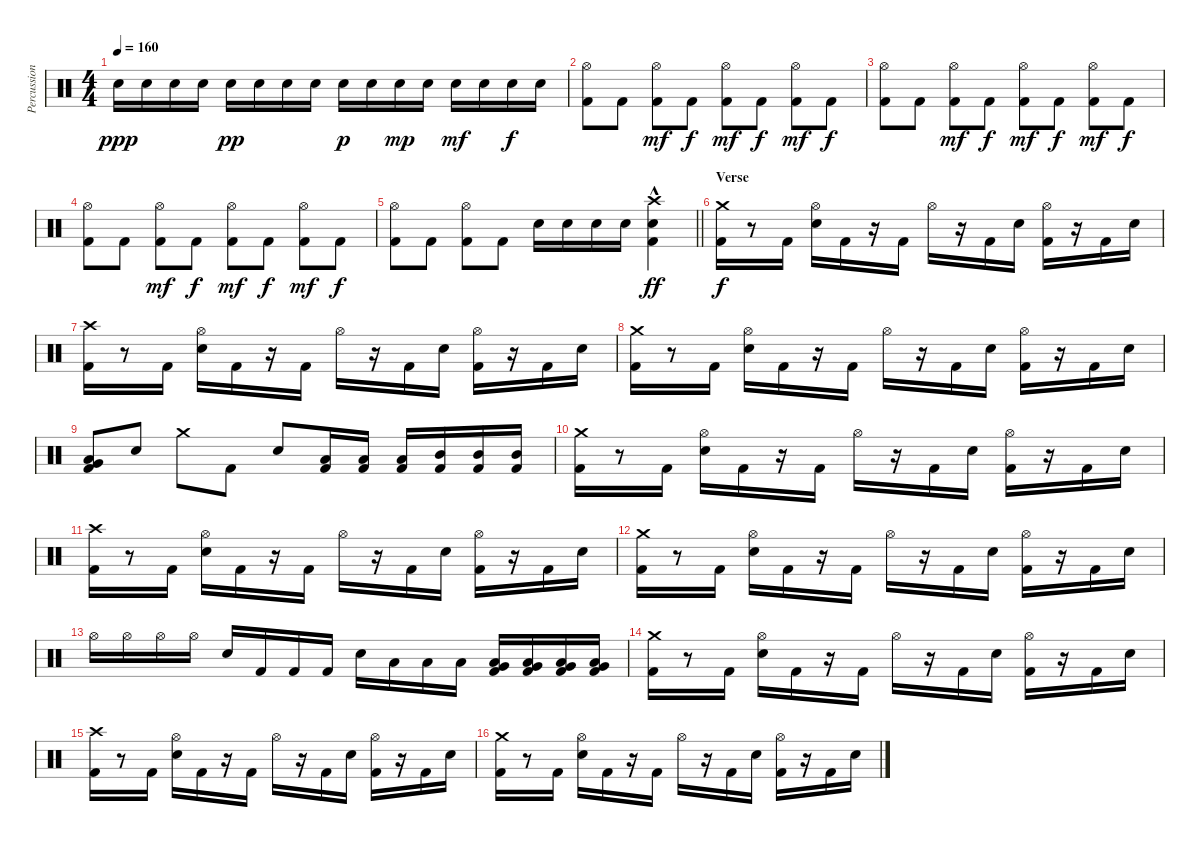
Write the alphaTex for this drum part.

\track ("Percussion" "Percussion") {instrument percussion}
\staff {score}
\articulation defaults
\ts (4 4)
\tempo 160
\clef neutral
\ks c "Electric Snare (hit)".16{dy ppp} "Electric Snare (hit)".16 "Electric Snare (hit)".16 "Electric Snare (hit)".16 "Electric Snare (hit)".16{dy pp} "Electric Snare (hit)".16 "Electric Snare (hit)".16 "Electric Snare (hit)".16 "Electric Snare (hit)".16{dy p} "Electric Snare (hit)".16 "Electric Snare (hit)".16{dy mp} "Electric Snare (hit)".16 "Electric Snare (hit)".16{dy mf} "Electric Snare (hit)".16 "Electric Snare (hit)".16{dy f} "Electric Snare (hit)".16
|
("Hi-Hat (open)" "Kick (hit) 2").8 "Kick (hit) 2".8 ("Hi-Hat (open)" "Kick (hit) 2").8{dy mf} "Kick (hit) 2".8{dy f} ("Hi-Hat (open)" "Kick (hit) 2").8{dy mf} "Kick (hit) 2".8{dy f} ("Hi-Hat (open)" "Kick (hit) 2").8{dy mf} "Kick (hit) 2".8{dy f} |
("Hi-Hat (open)" "Kick (hit) 2").8 "Kick (hit) 2".8 ("Hi-Hat (open)" "Kick (hit) 2").8{dy mf} "Kick (hit) 2".8{dy f} ("Hi-Hat (open)" "Kick (hit) 2").8{dy mf} "Kick (hit) 2".8{dy f} ("Hi-Hat (open)" "Kick (hit) 2").8{dy mf} "Kick (hit) 2".8{dy f} |
("Hi-Hat (open)" "Kick (hit) 2").8 "Kick (hit) 2".8 ("Hi-Hat (open)" "Kick (hit) 2").8{dy mf} "Kick (hit) 2".8{dy f} ("Hi-Hat (open)" "Kick (hit) 2").8{dy mf} "Kick (hit) 2".8{dy f} ("Hi-Hat (open)" "Kick (hit) 2").8{dy mf} "Kick (hit) 2".8{dy f} |
\barLineRight lightlight
("Hi-Hat (open)" "Kick (hit) 2").8 "Kick (hit) 2".8 ("Hi-Hat (open)" "Kick (hit) 2").8 "Kick (hit) 2".8 "Electric Snare (hit)".16 "Electric Snare (hit)".16 "Electric Snare (hit)".16 "Electric Snare (hit)".16 ("Crash high (hit)" "Electric Snare (hit)" "Kick (hit) 2"{hac}).4{dy ff} |
\section ("" "Verse")
("Crash medium (hit)" "Kick (hit) 2").16{dy f} r.8 "Kick (hit) 2".16 ("Hi-Hat (open)" "Electric Snare (hit)").16 "Kick (hit) 2".16 r.16 "Kick (hit) 2".16 "Hi-Hat (open)".16 r.16 "Kick (hit) 2".16 "Electric Snare (hit)".16 ("Hi-Hat (open)" "Kick (hit) 2").16 r.16 "Kick (hit) 2".16 "Electric Snare (hit)".16 |
("Crash high (hit)" "Kick (hit) 2").16 r.8 "Kick (hit) 2".16 ("Hi-Hat (open)" "Electric Snare (hit)").16 "Kick (hit) 2".16 r.16 "Kick (hit) 2".16 "Hi-Hat (open)".16 r.16 "Kick (hit) 2".16 "Electric Snare (hit)".16 ("Hi-Hat (open)" "Kick (hit) 2").16 r.16 "Kick (hit) 2".16 "Electric Snare (hit)".16 |
("Crash medium (hit)" "Kick (hit) 2").16 r.8 "Kick (hit) 2".16 ("Hi-Hat (open)" "Electric Snare (hit)").16 "Kick (hit) 2".16 r.16 "Kick (hit) 2".16 "Hi-Hat (open)".16 r.16 "Kick (hit) 2".16 "Electric Snare (hit)".16 ("Hi-Hat (open)" "Kick (hit) 2").16 r.16 "Kick (hit) 2".16 "Electric Snare (hit)".16 |
("Low Tom (hit)" "Very Low Tom (hit)" "Kick (hit) 2").8 "Electric Snare (hit)".8 "Crash medium (hit)".8 "Kick (hit) 2".8 "Electric Snare (hit)".8 ("Low Tom (hit)" "Kick (hit) 2").16 ("Low Tom (hit)" "Kick (hit) 2").16 ("Low Tom (hit)" "Kick (hit) 2").16 ("Mid Tom (hit)" "Kick (hit) 2").16 ("Mid Tom (hit)" "Kick (hit) 2").16 ("Mid Tom (hit)" "Kick (hit) 2").16 |
("Crash medium (hit)" "Kick (hit) 2").16 r.8 "Kick (hit) 2".16 ("Hi-Hat (open)" "Electric Snare (hit)").16 "Kick (hit) 2".16 r.16 "Kick (hit) 2".16 "Hi-Hat (open)".16 r.16 "Kick (hit) 2".16 "Electric Snare (hit)".16 ("Hi-Hat (open)" "Kick (hit) 2").16 r.16 "Kick (hit) 2".16 "Electric Snare (hit)".16 |
("Crash high (hit)" "Kick (hit) 2").16 r.8 "Kick (hit) 2".16 ("Hi-Hat (open)" "Electric Snare (hit)").16 "Kick (hit) 2".16 r.16 "Kick (hit) 2".16 "Hi-Hat (open)".16 r.16 "Kick (hit) 2".16 "Electric Snare (hit)".16 ("Hi-Hat (open)" "Kick (hit) 2").16 r.16 "Kick (hit) 2".16 "Electric Snare (hit)".16 |
("Crash medium (hit)" "Kick (hit) 2").16 r.8 "Kick (hit) 2".16 ("Hi-Hat (open)" "Electric Snare (hit)").16 "Kick (hit) 2".16 r.16 "Kick (hit) 2".16 "Hi-Hat (open)".16 r.16 "Kick (hit) 2".16 "Electric Snare (hit)".16 ("Hi-Hat (open)" "Kick (hit) 2").16 r.16 "Kick (hit) 2".16 "Electric Snare (hit)".16 |
"Hi-Hat (open)".16 "Hi-Hat (open)".16 "Hi-Hat (open)".16 "Hi-Hat (open)".16 "Electric Snare (hit)".16 "Kick (hit) 2".16 "Kick (hit) 2".16 "Kick (hit) 2".16 "Electric Snare (hit)".16 "Low Tom (hit)".16 "Low Tom (hit)".16 "Low Tom (hit)".16 ("Low Floor Tom (hit)" "Very Low Tom (hit)" "Kick (hit) 2").16 ("Low Floor Tom (hit)" "Very Low Tom (hit)" "Kick (hit) 2").16 ("Low Floor Tom (hit)" "Very Low Tom (hit)" "Kick (hit) 2").16 ("Low Floor Tom (hit)" "Very Low Tom (hit)" "Kick (hit) 2").16 |
("Crash medium (hit)" "Kick (hit) 2").16 r.8 "Kick (hit) 2".16 ("Hi-Hat (open)" "Electric Snare (hit)").16 "Kick (hit) 2".16 r.16 "Kick (hit) 2".16 "Hi-Hat (open)".16 r.16 "Kick (hit) 2".16 "Electric Snare (hit)".16 ("Hi-Hat (open)" "Kick (hit) 2").16 r.16 "Kick (hit) 2".16 "Electric Snare (hit)".16 |
("Crash high (hit)" "Kick (hit) 2").16 r.8 "Kick (hit) 2".16 ("Hi-Hat (open)" "Electric Snare (hit)").16 "Kick (hit) 2".16 r.16 "Kick (hit) 2".16 "Hi-Hat (open)".16 r.16 "Kick (hit) 2".16 "Electric Snare (hit)".16 ("Hi-Hat (open)" "Kick (hit) 2").16 r.16 "Kick (hit) 2".16 "Electric Snare (hit)".16 |
("Crash medium (hit)" "Kick (hit) 2").16 r.8 "Kick (hit) 2".16 ("Hi-Hat (open)" "Electric Snare (hit)").16 "Kick (hit) 2".16 r.16 "Kick (hit) 2".16 "Hi-Hat (open)".16 r.16 "Kick (hit) 2".16 "Electric Snare (hit)".16 ("Hi-Hat (open)" "Kick (hit) 2").16 r.16 "Kick (hit) 2".16 "Electric Snare (hit)".16
